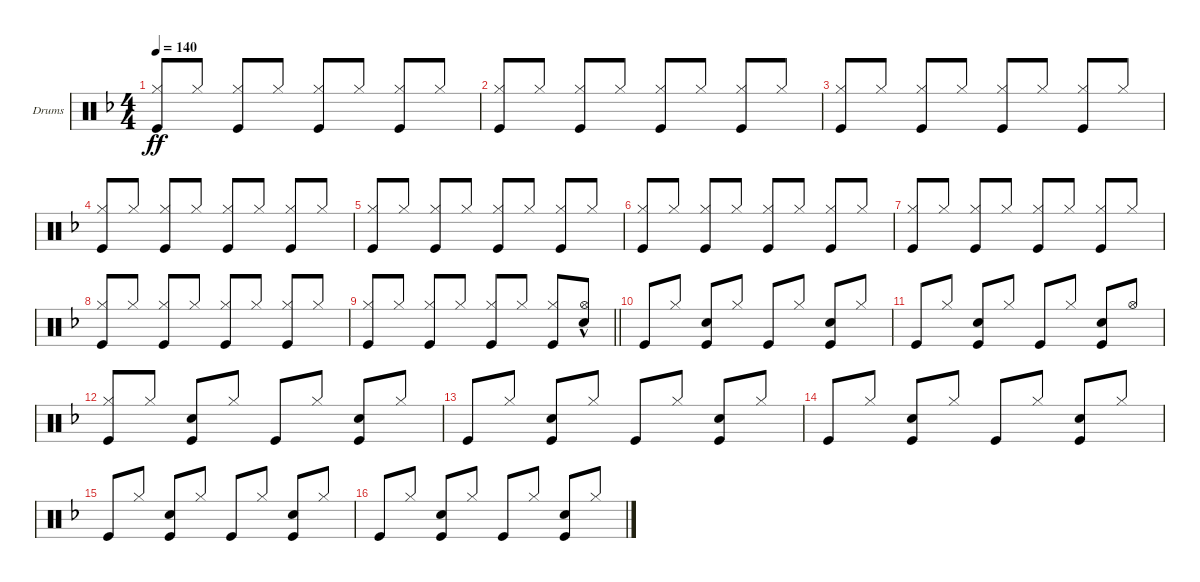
\defaultSystemsLayout 4
\bracketExtendMode groupsimilarinstruments
\firstSystemTrackNameOrientation horizontal
\otherSystemsTrackNameOrientation horizontal
\track ("Drumkit" "Drums") {instrument percussion}
\staff {score}
\articulation defaults
\ts (4 4)
\tempo 140
\clef neutral
\ks f
("Hi-Hat (closed)" "Kick (hit)").8{dy ff beam invert} "Hi-Hat (closed)".8 ("Hi-Hat (closed)" "Kick (hit)").8{beam invert} "Hi-Hat (closed)".8 ("Hi-Hat (closed)" "Kick (hit)").8{beam invert} "Hi-Hat (closed)".8 ("Hi-Hat (closed)" "Kick (hit)").8{beam invert} "Hi-Hat (closed)".8 |
("Hi-Hat (closed)" "Kick (hit)").8{beam invert} "Hi-Hat (closed)".8 ("Hi-Hat (closed)" "Kick (hit)").8{beam invert} "Hi-Hat (closed)".8 ("Hi-Hat (closed)" "Kick (hit)").8{beam invert} "Hi-Hat (closed)".8 ("Hi-Hat (closed)" "Kick (hit)").8{beam invert} "Hi-Hat (closed)".8 |
("Hi-Hat (closed)" "Kick (hit)").8{beam invert} "Hi-Hat (closed)".8 ("Hi-Hat (closed)" "Kick (hit)").8{beam invert} "Hi-Hat (closed)".8 ("Hi-Hat (closed)" "Kick (hit)").8{beam invert} "Hi-Hat (closed)".8 ("Hi-Hat (closed)" "Kick (hit)").8{beam invert} "Hi-Hat (closed)".8 |
("Hi-Hat (closed)" "Kick (hit)").8{beam invert} "Hi-Hat (closed)".8 ("Hi-Hat (closed)" "Kick (hit)").8{beam invert} "Hi-Hat (closed)".8 ("Hi-Hat (closed)" "Kick (hit)").8{beam invert} "Hi-Hat (closed)".8 ("Hi-Hat (closed)" "Kick (hit)").8{beam invert} "Hi-Hat (closed)".8 |
("Hi-Hat (closed)" "Kick (hit)").8{beam invert} "Hi-Hat (closed)".8 ("Hi-Hat (closed)" "Kick (hit)").8{beam invert} "Hi-Hat (closed)".8 ("Hi-Hat (closed)" "Kick (hit)").8{beam invert} "Hi-Hat (closed)".8 ("Hi-Hat (closed)" "Kick (hit)").8{beam invert} "Hi-Hat (closed)".8 |
("Hi-Hat (closed)" "Kick (hit)").8{beam invert} "Hi-Hat (closed)".8 ("Hi-Hat (closed)" "Kick (hit)").8{beam invert} "Hi-Hat (closed)".8 ("Hi-Hat (closed)" "Kick (hit)").8{beam invert} "Hi-Hat (closed)".8 ("Hi-Hat (closed)" "Kick (hit)").8{beam invert} "Hi-Hat (closed)".8 |
("Hi-Hat (closed)" "Kick (hit)").8{beam invert} "Hi-Hat (closed)".8 ("Hi-Hat (closed)" "Kick (hit)").8{beam invert} "Hi-Hat (closed)".8 ("Hi-Hat (closed)" "Kick (hit)").8{beam invert} "Hi-Hat (closed)".8 ("Hi-Hat (closed)" "Kick (hit)").8{beam invert} "Hi-Hat (closed)".8 |
("Hi-Hat (closed)" "Kick (hit)").8{beam invert} "Hi-Hat (closed)".8 ("Hi-Hat (closed)" "Kick (hit)").8{beam invert} "Hi-Hat (closed)".8 ("Hi-Hat (closed)" "Kick (hit)").8{beam invert} "Hi-Hat (closed)".8 ("Hi-Hat (closed)" "Kick (hit)").8{beam invert} "Hi-Hat (closed)".8 |
\barLineRight lightlight
("Hi-Hat (closed)" "Kick (hit)").8{beam invert} "Hi-Hat (closed)".8 ("Hi-Hat (closed)" "Kick (hit)").8{beam invert} "Hi-Hat (closed)".8 ("Hi-Hat (closed)" "Kick (hit)").8{beam invert} "Hi-Hat (closed)".8 ("Hi-Hat (closed)" "Kick (hit)").8{beam invert} ("Hi-Hat (open)" "Snare (hit) 2"{hac}).8 |
"Kick (hit)".8{beam invert} "Hi-Hat (closed)".8 ("Snare (hit) 2" "Kick (hit)").8{beam invert} "Hi-Hat (closed)".8 "Kick (hit)".8{beam invert} "Hi-Hat (closed)".8 ("Snare (hit) 2" "Kick (hit)").8{beam invert} "Hi-Hat (closed)".8 |
"Kick (hit)".8{beam invert} "Hi-Hat (closed)".8 ("Snare (hit) 2" "Kick (hit)").8{beam invert} "Hi-Hat (closed)".8 "Kick (hit)".8{beam invert} "Hi-Hat (closed)".8 ("Snare (hit) 2" "Kick (hit)").8{beam invert} "Hi-Hat (open)".8 |
("Kick (hit)" "Hi-Hat (closed)").8{beam invert} "Hi-Hat (closed)".8 ("Snare (hit) 2" "Kick (hit)").8{beam invert} "Hi-Hat (closed)".8 "Kick (hit)".8{beam invert} "Hi-Hat (closed)".8 ("Snare (hit) 2" "Kick (hit)").8{beam invert} "Hi-Hat (closed)".8 |
"Kick (hit)".8{beam invert} "Hi-Hat (closed)".8 ("Snare (hit) 2" "Kick (hit)").8{beam invert} "Hi-Hat (closed)".8 "Kick (hit)".8{beam invert} "Hi-Hat (closed)".8 ("Snare (hit) 2" "Kick (hit)").8{beam invert} "Hi-Hat (closed)".8 |
"Kick (hit)".8{beam invert} "Hi-Hat (closed)".8 ("Snare (hit) 2" "Kick (hit)").8{beam invert} "Hi-Hat (closed)".8 "Kick (hit)".8{beam invert} "Hi-Hat (closed)".8 ("Snare (hit) 2" "Kick (hit)").8{beam invert} "Hi-Hat (closed)".8 |
"Kick (hit)".8{beam invert} "Hi-Hat (closed)".8 ("Snare (hit) 2" "Kick (hit)").8{beam invert} "Hi-Hat (closed)".8 "Kick (hit)".8{beam invert} "Hi-Hat (closed)".8 ("Snare (hit) 2" "Kick (hit)").8{beam invert} "Hi-Hat (closed)".8 |
"Kick (hit)".8{beam invert} "Hi-Hat (closed)".8 ("Snare (hit) 2" "Kick (hit)").8{beam invert} "Hi-Hat (closed)".8 "Kick (hit)".8{beam invert} "Hi-Hat (closed)".8 ("Snare (hit) 2" "Kick (hit)").8{beam invert} "Hi-Hat (closed)".8
